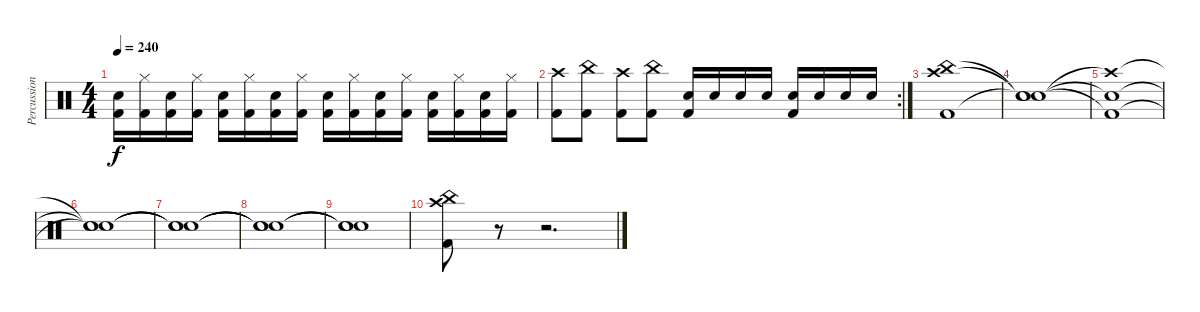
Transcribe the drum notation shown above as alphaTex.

\track ("Percussion" "Percussion") {instrument percussion}
\staff {score}
\articulation defaults
\ts (4 4)
\tempo 240
\clef neutral
\ks c
("Snare (hit) 2" "Kick (hit) 2").16{dy f} ("Hi-Hat (closed)" "Kick (hit) 2").16 ("Snare (hit) 2" "Kick (hit) 2").16 ("Hi-Hat (closed)" "Kick (hit) 2").16 ("Snare (hit) 2" "Kick (hit) 2").16 ("Hi-Hat (closed)" "Kick (hit) 2").16 ("Snare (hit) 2" "Kick (hit) 2").16 ("Hi-Hat (closed)" "Kick (hit) 2").16 ("Snare (hit) 2" "Kick (hit) 2").16 ("Hi-Hat (closed)" "Kick (hit) 2").16 ("Snare (hit) 2" "Kick (hit) 2").16 ("Hi-Hat (closed)" "Kick (hit) 2").16 ("Snare (hit) 2" "Kick (hit) 2").16 ("Hi-Hat (closed)" "Kick (hit) 2").16 ("Snare (hit) 2" "Kick (hit) 2").16 ("Hi-Hat (closed)" "Kick (hit) 2").16 |
\rc 2
("Crash high (hit)" "Kick (hit) 2").8 ("China (hit)" "Kick (hit) 2").8 ("Crash high (hit)" "Kick (hit) 2").8 ("China (hit)" "Kick (hit) 2").8 ("Snare (hit) 2" "Kick (hit) 2").16 "Snare (hit) 2".16 "Snare (hit) 2".16 "Snare (hit) 2".16 ("Snare (hit) 2" "Kick (hit) 2").16 "Snare (hit) 2".16 "Snare (hit) 2".16 "Snare (hit) 2".16 |
("Kick (hit) 2" "Crash high (hit)" "China (hit)").1 |
("Snare (hit)"{t} "Snare (hit)"{t} "Snare (hit)"{t}).1 |
("Crash high (hit)"{t} "Kick (hit) 2"{t} "Snare (hit)"{t}).1 |
("Snare (hit)"{t} "Snare (hit)"{t} "Snare (hit)"{t}).1 |
("Snare (hit)"{t} "Snare (hit)"{t} "Snare (hit)"{t}).1 |
("Snare (hit)"{t} "Snare (hit)"{t} "Snare (hit)"{t}).1 |
("Snare (hit)"{t} "Snare (hit)"{t} "Snare (hit)"{t}).1 |
("Kick (hit) 2" "China (hit)" "Crash high (hit)").8 r.8 r.2{d}
